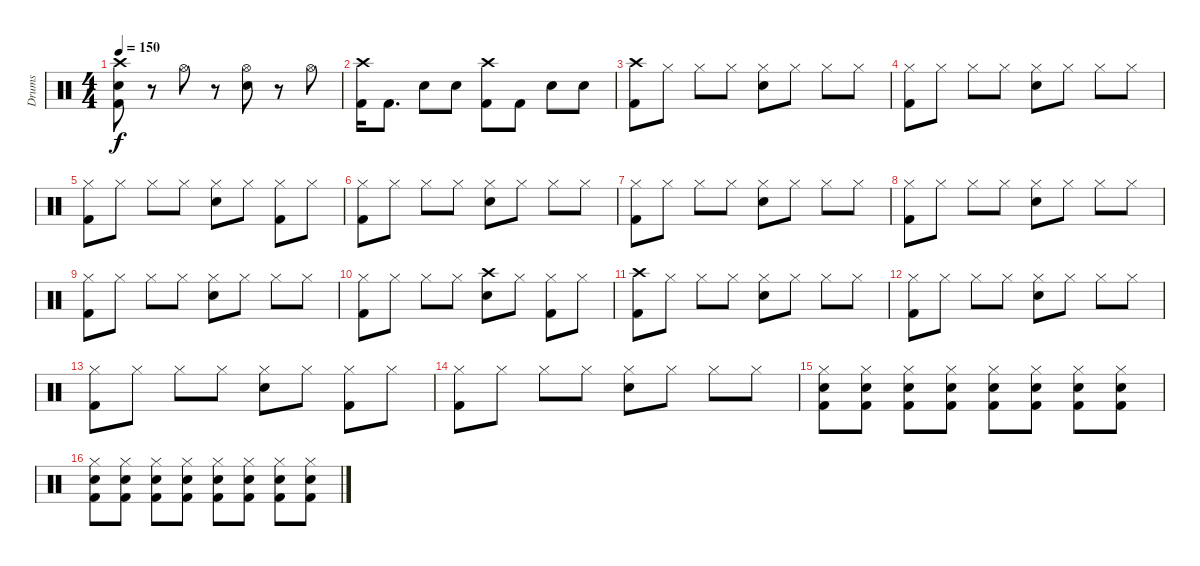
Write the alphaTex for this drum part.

\track ("Drums" "Drums") {instrument percussion}
\staff {score}
\articulation defaults
\ts (4 4)
\tempo 150
\clef neutral
\ks c
("Crash high (hit)" "Electric Snare (hit)" "Kick (hit) 2").8{dy f} r.8 "Hi-Hat (open)".8 r.8 ("Hi-Hat (open)" "Electric Snare (hit)").8 r.8 "Hi-Hat (open)".8 |
("Crash high (hit)" "Kick (hit) 2").16 "Kick (hit) 2".8{d} "Electric Snare (hit)".8 "Electric Snare (hit)".8 ("Crash high (hit)" "Kick (hit) 2").8 "Kick (hit) 2".8 "Electric Snare (hit)".8 "Electric Snare (hit)".8 |
("Crash high (hit)" "Kick (hit) 2").8 "Hi-Hat (closed)".8 "Hi-Hat (closed)".8 "Hi-Hat (closed)".8 ("Hi-Hat (closed)" "Electric Snare (hit)").8 "Hi-Hat (closed)".8 "Hi-Hat (closed)".8 "Hi-Hat (closed)".8 |
("Hi-Hat (closed)" "Kick (hit) 2").8 "Hi-Hat (closed)".8 "Hi-Hat (closed)".8 "Hi-Hat (closed)".8 ("Hi-Hat (closed)" "Electric Snare (hit)").8 "Hi-Hat (closed)".8 "Hi-Hat (closed)".8 "Hi-Hat (closed)".8 |
("Hi-Hat (closed)" "Kick (hit) 2").8 "Hi-Hat (closed)".8 "Hi-Hat (closed)".8 "Hi-Hat (closed)".8 ("Hi-Hat (closed)" "Electric Snare (hit)").8 "Hi-Hat (closed)".8 ("Hi-Hat (closed)" "Kick (hit) 2").8 "Hi-Hat (closed)".8 |
("Hi-Hat (closed)" "Kick (hit) 2").8 "Hi-Hat (closed)".8 "Hi-Hat (closed)".8 "Hi-Hat (closed)".8 ("Hi-Hat (closed)" "Electric Snare (hit)").8 "Hi-Hat (closed)".8 "Hi-Hat (closed)".8 "Hi-Hat (closed)".8 |
("Hi-Hat (closed)" "Kick (hit) 2").8 "Hi-Hat (closed)".8 "Hi-Hat (closed)".8 "Hi-Hat (closed)".8 ("Hi-Hat (closed)" "Electric Snare (hit)").8 "Hi-Hat (closed)".8 "Hi-Hat (closed)".8 "Hi-Hat (closed)".8 |
("Hi-Hat (closed)" "Kick (hit) 2").8 "Hi-Hat (closed)".8 "Hi-Hat (closed)".8 "Hi-Hat (closed)".8 ("Hi-Hat (closed)" "Electric Snare (hit)").8 "Hi-Hat (closed)".8 "Hi-Hat (closed)".8 "Hi-Hat (closed)".8 |
("Hi-Hat (closed)" "Kick (hit) 2").8 "Hi-Hat (closed)".8 "Hi-Hat (closed)".8 "Hi-Hat (closed)".8 ("Hi-Hat (closed)" "Electric Snare (hit)").8 "Hi-Hat (closed)".8 "Hi-Hat (closed)".8 "Hi-Hat (closed)".8 |
("Hi-Hat (closed)" "Kick (hit) 2").8 "Hi-Hat (closed)".8 "Hi-Hat (closed)".8 "Hi-Hat (closed)".8 ("Crash high (hit)" "Electric Snare (hit)").8 "Hi-Hat (closed)".8 ("Hi-Hat (closed)" "Kick (hit) 2").8 "Hi-Hat (closed)".8 |
("Crash high (hit)" "Kick (hit) 2").8 "Hi-Hat (closed)".8 "Hi-Hat (closed)".8 "Hi-Hat (closed)".8 ("Hi-Hat (closed)" "Electric Snare (hit)").8 "Hi-Hat (closed)".8 "Hi-Hat (closed)".8 "Hi-Hat (closed)".8 |
("Hi-Hat (closed)" "Kick (hit) 2").8 "Hi-Hat (closed)".8 "Hi-Hat (closed)".8 "Hi-Hat (closed)".8 ("Hi-Hat (closed)" "Electric Snare (hit)").8 "Hi-Hat (closed)".8 "Hi-Hat (closed)".8 "Hi-Hat (closed)".8 |
("Hi-Hat (closed)" "Kick (hit) 2").8 "Hi-Hat (closed)".8 "Hi-Hat (closed)".8 "Hi-Hat (closed)".8 ("Hi-Hat (closed)" "Electric Snare (hit)").8 "Hi-Hat (closed)".8 ("Hi-Hat (closed)" "Kick (hit) 2").8 "Hi-Hat (closed)".8 |
("Hi-Hat (closed)" "Kick (hit) 2").8 "Hi-Hat (closed)".8 "Hi-Hat (closed)".8 "Hi-Hat (closed)".8 ("Hi-Hat (closed)" "Electric Snare (hit)").8 "Hi-Hat (closed)".8 "Hi-Hat (closed)".8 "Hi-Hat (closed)".8 |
("Hi-Hat (closed)" "Electric Snare (hit)" "Kick (hit) 2").8 ("Hi-Hat (closed)" "Electric Snare (hit)" "Kick (hit) 2").8 ("Hi-Hat (closed)" "Electric Snare (hit)" "Kick (hit) 2").8 ("Hi-Hat (closed)" "Electric Snare (hit)" "Kick (hit) 2").8 ("Hi-Hat (closed)" "Electric Snare (hit)" "Kick (hit) 2").8 ("Hi-Hat (closed)" "Electric Snare (hit)" "Kick (hit) 2").8 ("Hi-Hat (closed)" "Electric Snare (hit)" "Kick (hit) 2").8 ("Hi-Hat (closed)" "Electric Snare (hit)" "Kick (hit) 2").8 |
("Hi-Hat (closed)" "Electric Snare (hit)" "Kick (hit) 2").8 ("Hi-Hat (closed)" "Electric Snare (hit)" "Kick (hit) 2").8 ("Hi-Hat (closed)" "Electric Snare (hit)" "Kick (hit) 2").8 ("Hi-Hat (closed)" "Electric Snare (hit)" "Kick (hit) 2").8 ("Hi-Hat (closed)" "Electric Snare (hit)" "Kick (hit) 2").8 ("Hi-Hat (closed)" "Electric Snare (hit)" "Kick (hit) 2").8 ("Hi-Hat (closed)" "Electric Snare (hit)" "Kick (hit) 2").8 ("Hi-Hat (closed)" "Electric Snare (hit)" "Kick (hit) 2").8
